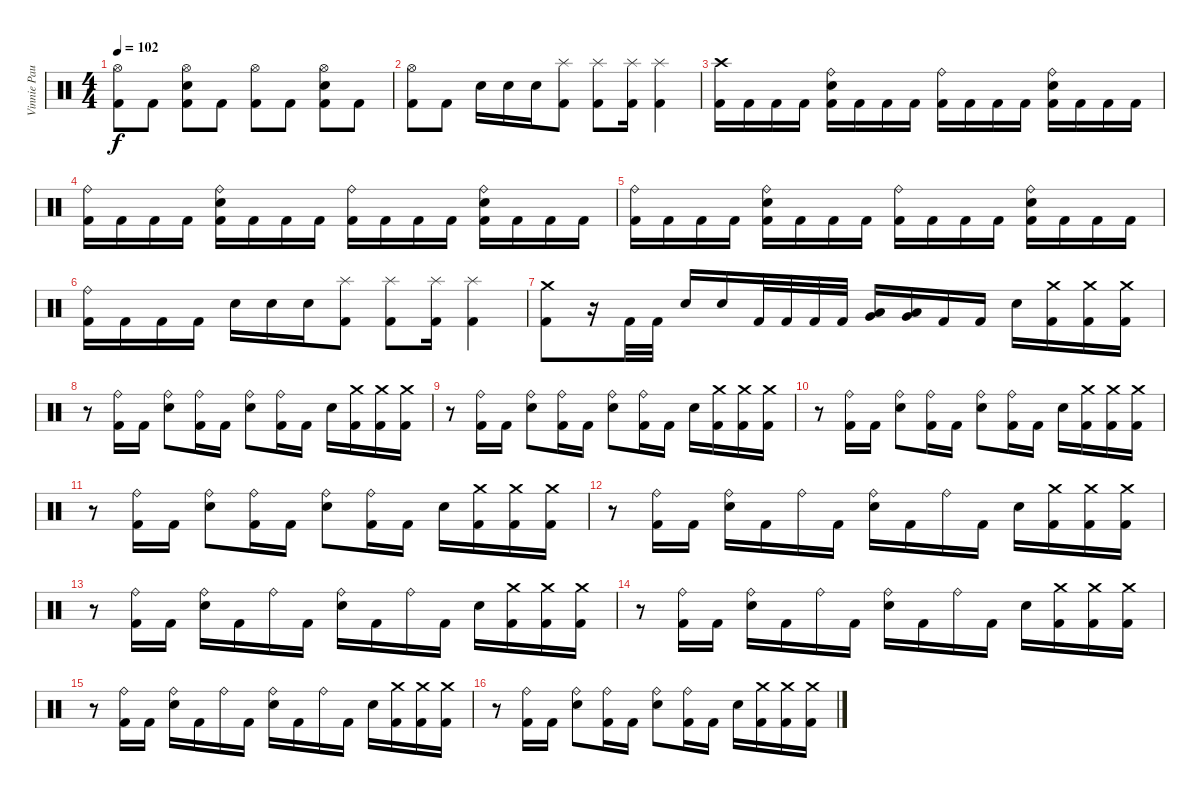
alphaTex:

\track ("Vinnie Paul" "Vinnie Pau") {instrument percussion}
\staff {score}
\articulation defaults
\ts (4 4)
\tempo 102
\clef neutral
\ks c
("Hi-Hat (open)" "Kick (hit) 2").8{dy f} "Kick (hit) 2".8 ("Hi-Hat (open)" "Snare (hit) 2" "Kick (hit) 2").8 "Kick (hit) 2".8 ("Hi-Hat (open)" "Kick (hit) 2").8 "Kick (hit) 2".8 ("Hi-Hat (open)" "Snare (hit) 2" "Kick (hit) 2").8 "Kick (hit) 2".8 |
("Hi-Hat (open)" "Kick (hit) 2").8 "Kick (hit) 2".8 "Snare (hit) 2".16 "Snare (hit) 2".16 "Snare (hit) 2".16 ("Splash (hit)" "Kick (hit) 2").8 ("Splash (hit)" "Kick (hit) 2").8 ("Splash (hit)" "Kick (hit) 2").16 ("Splash (hit)" "Kick (hit) 2").4 |
("Crash high (hit)" "Kick (hit) 2").16 "Kick (hit) 2".16 "Kick (hit) 2".16 "Kick (hit) 2".16 ("Ride (bell)" "Snare (hit) 2" "Kick (hit) 2").16 "Kick (hit) 2".16 "Kick (hit) 2".16 "Kick (hit) 2".16 ("Ride (bell)" "Kick (hit) 2").16 "Kick (hit) 2".16 "Kick (hit) 2".16 "Kick (hit) 2".16 ("Ride (bell)" "Snare (hit) 2" "Kick (hit) 2").16 "Kick (hit) 2".16 "Kick (hit) 2".16 "Kick (hit) 2".16 |
("Ride (bell)" "Kick (hit) 2").16 "Kick (hit) 2".16 "Kick (hit) 2".16 "Kick (hit) 2".16 ("Ride (bell)" "Snare (hit) 2" "Kick (hit) 2").16 "Kick (hit) 2".16 "Kick (hit) 2".16 "Kick (hit) 2".16 ("Ride (bell)" "Kick (hit) 2").16 "Kick (hit) 2".16 "Kick (hit) 2".16 "Kick (hit) 2".16 ("Ride (bell)" "Snare (hit) 2" "Kick (hit) 2").16 "Kick (hit) 2".16 "Kick (hit) 2".16 "Kick (hit) 2".16 |
("Ride (bell)" "Kick (hit) 2").16 "Kick (hit) 2".16 "Kick (hit) 2".16 "Kick (hit) 2".16 ("Ride (bell)" "Snare (hit) 2" "Kick (hit) 2").16 "Kick (hit) 2".16 "Kick (hit) 2".16 "Kick (hit) 2".16 ("Ride (bell)" "Kick (hit) 2").16 "Kick (hit) 2".16 "Kick (hit) 2".16 "Kick (hit) 2".16 ("Ride (bell)" "Snare (hit) 2" "Kick (hit) 2").16 "Kick (hit) 2".16 "Kick (hit) 2".16 "Kick (hit) 2".16 |
("Ride (bell)" "Kick (hit) 2").16 "Kick (hit) 2".16 "Kick (hit) 2".16 "Kick (hit) 2".16 "Snare (hit) 2".16 "Snare (hit) 2".16 "Snare (hit) 2".16 ("Splash (hit)" "Kick (hit) 2").8 ("Splash (hit)" "Kick (hit) 2").8 ("Splash (hit)" "Kick (hit) 2").16 ("Splash (hit)" "Kick (hit) 2").4 |
("Crash medium (hit)" "Kick (hit) 2").8 r.16 "Kick (hit) 2".32 "Kick (hit) 2".32 "Snare (hit) 2".16 "Snare (hit) 2".16 "Kick (hit) 2".32 "Kick (hit) 2".32 "Kick (hit) 2".32 "Kick (hit) 2".32 ("Low Tom (hit)" "Very Low Tom (hit)").16 ("Low Tom (hit)" "Very Low Tom (hit)").16 "Kick (hit) 2".16 "Kick (hit) 2".16 "Snare (hit) 2".16 ("Crash medium (hit)" "Kick (hit) 2").16 ("Crash medium (hit)" "Kick (hit) 2").16 ("Crash medium (hit)" "Kick (hit) 2").16 |
r.8 ("Ride (bell)" "Kick (hit) 2").16 "Kick (hit) 2".16 ("Ride (bell)" "Snare (hit) 2").8 ("Ride (bell)" "Kick (hit) 2").16 "Kick (hit) 2".16 ("Ride (bell)" "Snare (hit) 2").8 ("Ride (bell)" "Kick (hit) 2").16 "Kick (hit) 2".16 "Snare (hit) 2".16 ("Crash medium (hit)" "Kick (hit) 2").16 ("Crash medium (hit)" "Kick (hit) 2").16 ("Crash medium (hit)" "Kick (hit) 2").16 |
r.8 ("Ride (bell)" "Kick (hit) 2").16 "Kick (hit) 2".16 ("Ride (bell)" "Snare (hit) 2").8 ("Ride (bell)" "Kick (hit) 2").16 "Kick (hit) 2".16 ("Ride (bell)" "Snare (hit) 2").8 ("Ride (bell)" "Kick (hit) 2").16 "Kick (hit) 2".16 "Snare (hit) 2".16 ("Crash medium (hit)" "Kick (hit) 2").16 ("Crash medium (hit)" "Kick (hit) 2").16 ("Crash medium (hit)" "Kick (hit) 2").16 |
r.8 ("Ride (bell)" "Kick (hit) 2").16 "Kick (hit) 2".16 ("Ride (bell)" "Snare (hit) 2").8 ("Ride (bell)" "Kick (hit) 2").16 "Kick (hit) 2".16 ("Ride (bell)" "Snare (hit) 2").8 ("Ride (bell)" "Kick (hit) 2").16 "Kick (hit) 2".16 "Snare (hit) 2".16 ("Crash medium (hit)" "Kick (hit) 2").16 ("Crash medium (hit)" "Kick (hit) 2").16 ("Crash medium (hit)" "Kick (hit) 2").16 |
r.8 ("Ride (bell)" "Kick (hit) 2").16 "Kick (hit) 2".16 ("Ride (bell)" "Snare (hit) 2").8 ("Ride (bell)" "Kick (hit) 2").16 "Kick (hit) 2".16 ("Ride (bell)" "Snare (hit) 2").8 ("Ride (bell)" "Kick (hit) 2").16 "Kick (hit) 2".16 "Snare (hit) 2".16 ("Crash medium (hit)" "Kick (hit) 2").16 ("Crash medium (hit)" "Kick (hit) 2").16 ("Crash medium (hit)" "Kick (hit) 2").16 |
r.8 ("Ride (bell)" "Kick (hit) 2").16 "Kick (hit) 2".16 ("Ride (bell)" "Snare (hit) 2").16 "Kick (hit) 2".16 "Ride (bell)".16 "Kick (hit) 2".16 ("Ride (bell)" "Snare (hit) 2").16 "Kick (hit) 2".16 "Ride (bell)".16 "Kick (hit) 2".16 "Snare (hit) 2".16 ("Crash medium (hit)" "Kick (hit) 2").16 ("Crash medium (hit)" "Kick (hit) 2").16 ("Crash medium (hit)" "Kick (hit) 2").16 |
r.8 ("Ride (bell)" "Kick (hit) 2").16 "Kick (hit) 2".16 ("Ride (bell)" "Snare (hit) 2").16 "Kick (hit) 2".16 "Ride (bell)".16 "Kick (hit) 2".16 ("Ride (bell)" "Snare (hit) 2").16 "Kick (hit) 2".16 "Ride (bell)".16 "Kick (hit) 2".16 "Snare (hit) 2".16 ("Crash medium (hit)" "Kick (hit) 2").16 ("Crash medium (hit)" "Kick (hit) 2").16 ("Crash medium (hit)" "Kick (hit) 2").16 |
r.8 ("Ride (bell)" "Kick (hit) 2").16 "Kick (hit) 2".16 ("Ride (bell)" "Snare (hit) 2").16 "Kick (hit) 2".16 "Ride (bell)".16 "Kick (hit) 2".16 ("Ride (bell)" "Snare (hit) 2").16 "Kick (hit) 2".16 "Ride (bell)".16 "Kick (hit) 2".16 "Snare (hit) 2".16 ("Crash medium (hit)" "Kick (hit) 2").16 ("Crash medium (hit)" "Kick (hit) 2").16 ("Crash medium (hit)" "Kick (hit) 2").16 |
r.8 ("Ride (bell)" "Kick (hit) 2").16 "Kick (hit) 2".16 ("Ride (bell)" "Snare (hit) 2").16 "Kick (hit) 2".16 "Ride (bell)".16 "Kick (hit) 2".16 ("Ride (bell)" "Snare (hit) 2").16 "Kick (hit) 2".16 "Ride (bell)".16 "Kick (hit) 2".16 "Snare (hit) 2".16 ("Crash medium (hit)" "Kick (hit) 2").16 ("Crash medium (hit)" "Kick (hit) 2").16 ("Crash medium (hit)" "Kick (hit) 2").16 |
r.8 ("Ride (bell)" "Kick (hit) 2").16 "Kick (hit) 2".16 ("Ride (bell)" "Snare (hit) 2").8 ("Ride (bell)" "Kick (hit) 2").16 "Kick (hit) 2".16 ("Ride (bell)" "Snare (hit) 2").8 ("Ride (bell)" "Kick (hit) 2").16 "Kick (hit) 2".16 "Snare (hit) 2".16 ("Crash medium (hit)" "Kick (hit) 2").16 ("Crash medium (hit)" "Kick (hit) 2").16 ("Crash medium (hit)" "Kick (hit) 2").16
